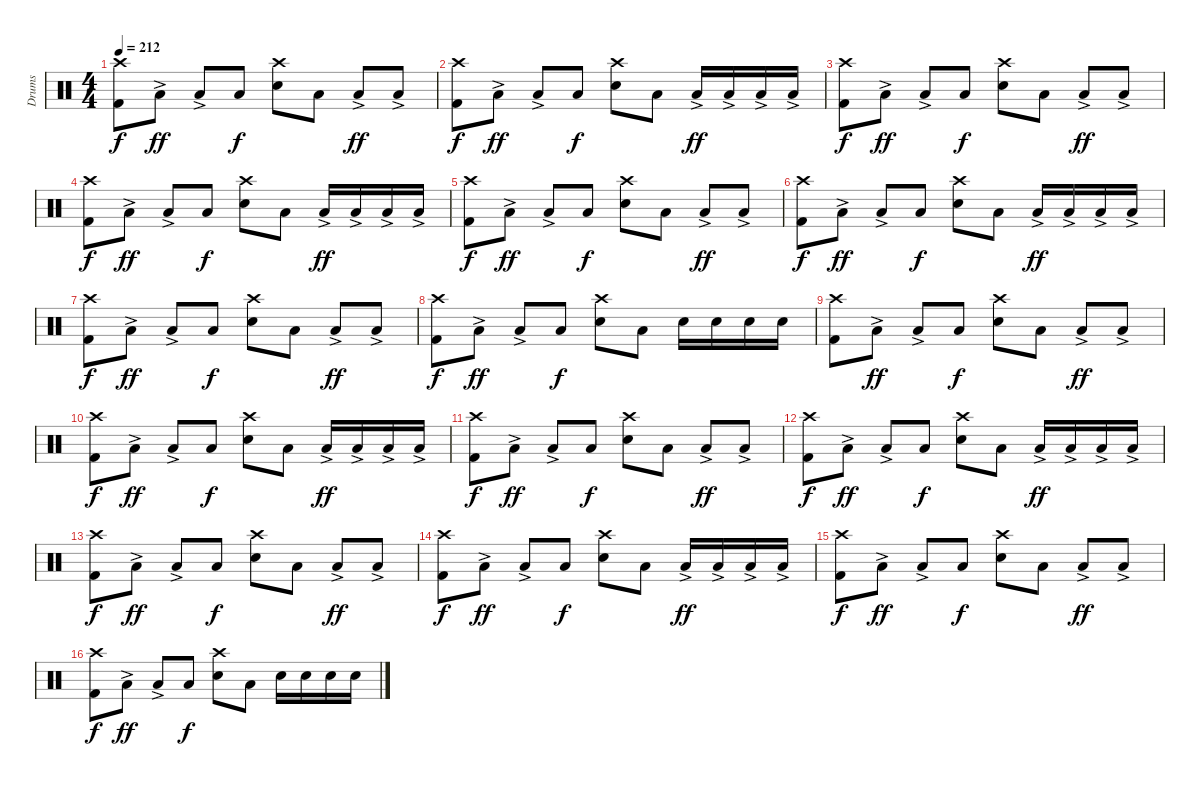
\track ("Drums" "Drums") {instrument percussion}
\staff {score}
\articulation defaults
\ts (4 4)
\tempo 212
\clef neutral
\ks c
("Crash high (hit)" "Kick (hit) 2").8{dy f} "Low Floor Tom (hit)"{ac}.8{dy ff} "Low Floor Tom (hit)"{ac}.8 "Low Floor Tom (hit)".8{dy f} ("Crash high (hit)" "Snare (hit) 2").8 "Low Floor Tom (hit)".8 "Low Floor Tom (hit)"{ac}.8{dy ff} "Low Floor Tom (hit)"{ac}.8 |
("Crash high (hit)" "Kick (hit) 2").8{dy f} "Low Floor Tom (hit)"{ac}.8{dy ff} "Low Floor Tom (hit)"{ac}.8 "Low Floor Tom (hit)".8{dy f} ("Crash high (hit)" "Snare (hit) 2").8 "Low Floor Tom (hit)".8 "Low Floor Tom (hit)"{ac}.16{dy ff} "Low Floor Tom (hit)"{ac}.16 "Low Floor Tom (hit)"{ac}.16 "Low Floor Tom (hit)"{ac}.16 |
("Crash high (hit)" "Kick (hit) 2").8{dy f} "Low Floor Tom (hit)"{ac}.8{dy ff} "Low Floor Tom (hit)"{ac}.8 "Low Floor Tom (hit)".8{dy f} ("Crash high (hit)" "Snare (hit) 2").8 "Low Floor Tom (hit)".8 "Low Floor Tom (hit)"{ac}.8{dy ff} "Low Floor Tom (hit)"{ac}.8 |
("Crash high (hit)" "Kick (hit) 2").8{dy f} "Low Floor Tom (hit)"{ac}.8{dy ff} "Low Floor Tom (hit)"{ac}.8 "Low Floor Tom (hit)".8{dy f} ("Crash high (hit)" "Snare (hit) 2").8 "Low Floor Tom (hit)".8 "Low Floor Tom (hit)"{ac}.16{dy ff} "Low Floor Tom (hit)"{ac}.16 "Low Floor Tom (hit)"{ac}.16 "Low Floor Tom (hit)"{ac}.16 |
("Crash high (hit)" "Kick (hit) 2").8{dy f} "Low Floor Tom (hit)"{ac}.8{dy ff} "Low Floor Tom (hit)"{ac}.8 "Low Floor Tom (hit)".8{dy f} ("Crash high (hit)" "Snare (hit) 2").8 "Low Floor Tom (hit)".8 "Low Floor Tom (hit)"{ac}.8{dy ff} "Low Floor Tom (hit)"{ac}.8 |
("Crash high (hit)" "Kick (hit) 2").8{dy f} "Low Floor Tom (hit)"{ac}.8{dy ff} "Low Floor Tom (hit)"{ac}.8 "Low Floor Tom (hit)".8{dy f} ("Crash high (hit)" "Snare (hit) 2").8 "Low Floor Tom (hit)".8 "Low Floor Tom (hit)"{ac}.16{dy ff} "Low Floor Tom (hit)"{ac}.16 "Low Floor Tom (hit)"{ac}.16 "Low Floor Tom (hit)"{ac}.16 |
("Crash high (hit)" "Kick (hit) 2").8{dy f} "Low Floor Tom (hit)"{ac}.8{dy ff} "Low Floor Tom (hit)"{ac}.8 "Low Floor Tom (hit)".8{dy f} ("Crash high (hit)" "Snare (hit) 2").8 "Low Floor Tom (hit)".8 "Low Floor Tom (hit)"{ac}.8{dy ff} "Low Floor Tom (hit)"{ac}.8 |
("Crash high (hit)" "Kick (hit) 2").8{dy f} "Low Floor Tom (hit)"{ac}.8{dy ff} "Low Floor Tom (hit)"{ac}.8 "Low Floor Tom (hit)".8{dy f} ("Crash high (hit)" "Snare (hit) 2").8 "Low Floor Tom (hit)".8 "Snare (hit) 2".16 "Snare (hit) 2".16 "Snare (hit) 2".16 "Snare (hit) 2".16 |
("Crash high (hit)" "Kick (hit) 2").8 "Low Floor Tom (hit)"{ac}.8{dy ff} "Low Floor Tom (hit)"{ac}.8 "Low Floor Tom (hit)".8{dy f} ("Crash high (hit)" "Snare (hit) 2").8 "Low Floor Tom (hit)".8 "Low Floor Tom (hit)"{ac}.8{dy ff} "Low Floor Tom (hit)"{ac}.8 |
("Crash high (hit)" "Kick (hit) 2").8{dy f} "Low Floor Tom (hit)"{ac}.8{dy ff} "Low Floor Tom (hit)"{ac}.8 "Low Floor Tom (hit)".8{dy f} ("Crash high (hit)" "Snare (hit) 2").8 "Low Floor Tom (hit)".8 "Low Floor Tom (hit)"{ac}.16{dy ff} "Low Floor Tom (hit)"{ac}.16 "Low Floor Tom (hit)"{ac}.16 "Low Floor Tom (hit)"{ac}.16 |
("Crash high (hit)" "Kick (hit) 2").8{dy f} "Low Floor Tom (hit)"{ac}.8{dy ff} "Low Floor Tom (hit)"{ac}.8 "Low Floor Tom (hit)".8{dy f} ("Crash high (hit)" "Snare (hit) 2").8 "Low Floor Tom (hit)".8 "Low Floor Tom (hit)"{ac}.8{dy ff} "Low Floor Tom (hit)"{ac}.8 |
("Crash high (hit)" "Kick (hit) 2").8{dy f} "Low Floor Tom (hit)"{ac}.8{dy ff} "Low Floor Tom (hit)"{ac}.8 "Low Floor Tom (hit)".8{dy f} ("Crash high (hit)" "Snare (hit) 2").8 "Low Floor Tom (hit)".8 "Low Floor Tom (hit)"{ac}.16{dy ff} "Low Floor Tom (hit)"{ac}.16 "Low Floor Tom (hit)"{ac}.16 "Low Floor Tom (hit)"{ac}.16 |
("Crash high (hit)" "Kick (hit) 2").8{dy f} "Low Floor Tom (hit)"{ac}.8{dy ff} "Low Floor Tom (hit)"{ac}.8 "Low Floor Tom (hit)".8{dy f} ("Crash high (hit)" "Snare (hit) 2").8 "Low Floor Tom (hit)".8 "Low Floor Tom (hit)"{ac}.8{dy ff} "Low Floor Tom (hit)"{ac}.8 |
("Crash high (hit)" "Kick (hit) 2").8{dy f} "Low Floor Tom (hit)"{ac}.8{dy ff} "Low Floor Tom (hit)"{ac}.8 "Low Floor Tom (hit)".8{dy f} ("Crash high (hit)" "Snare (hit) 2").8 "Low Floor Tom (hit)".8 "Low Floor Tom (hit)"{ac}.16{dy ff} "Low Floor Tom (hit)"{ac}.16 "Low Floor Tom (hit)"{ac}.16 "Low Floor Tom (hit)"{ac}.16 |
("Crash high (hit)" "Kick (hit) 2").8{dy f} "Low Floor Tom (hit)"{ac}.8{dy ff} "Low Floor Tom (hit)"{ac}.8 "Low Floor Tom (hit)".8{dy f} ("Crash high (hit)" "Snare (hit) 2").8 "Low Floor Tom (hit)".8 "Low Floor Tom (hit)"{ac}.8{dy ff} "Low Floor Tom (hit)"{ac}.8 |
("Crash high (hit)" "Kick (hit) 2").8{dy f} "Low Floor Tom (hit)"{ac}.8{dy ff} "Low Floor Tom (hit)"{ac}.8 "Low Floor Tom (hit)".8{dy f} ("Crash high (hit)" "Snare (hit) 2").8 "Low Floor Tom (hit)".8 "Snare (hit) 2".16 "Snare (hit) 2".16 "Snare (hit) 2".16 "Snare (hit) 2".16
